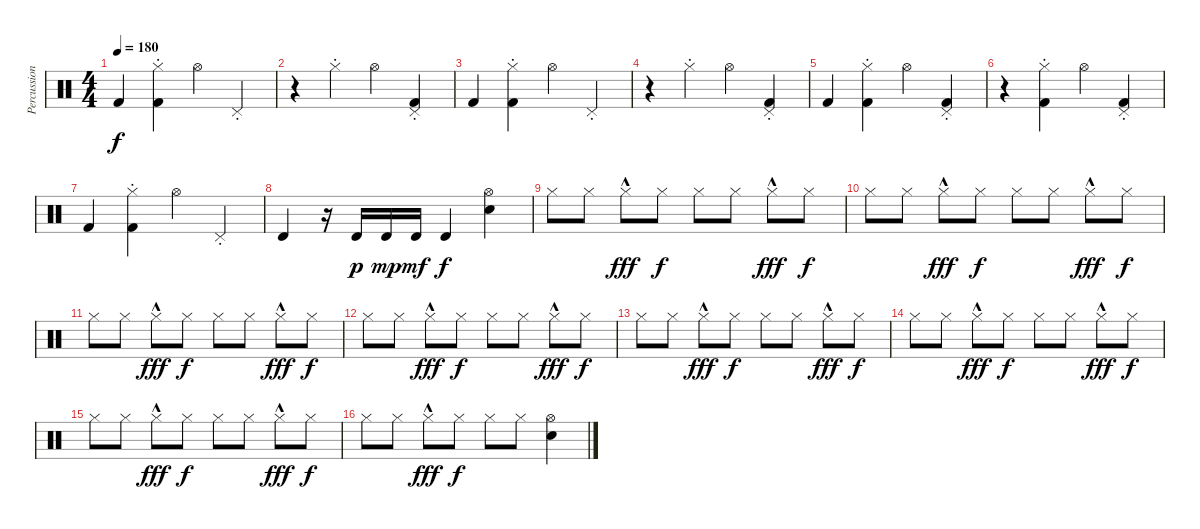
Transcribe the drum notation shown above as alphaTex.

\track ("Percussion" "Percussion") {instrument percussion}
\staff {score}
\articulation defaults
\ts (4 4)
\tempo 180
\clef neutral
\ks c "Kick (hit) 2".4{dy f}
("Hi-Hat (closed)"{st} "Kick (hit) 2").4 "Hi-Hat (open)".4 "Pedal Hi-Hat (hit)"{st}.4 |
r.4 "Hi-Hat (closed)"{st}.4 "Hi-Hat (open)".4 ("Pedal Hi-Hat (hit)"{st} "Kick (hit) 2").4 |
"Kick (hit) 2".4 ("Hi-Hat (closed)"{st} "Kick (hit) 2").4 "Hi-Hat (open)".4 "Pedal Hi-Hat (hit)"{st}.4 |
r.4 "Hi-Hat (closed)"{st}.4 "Hi-Hat (open)".4 ("Pedal Hi-Hat (hit)"{st} "Kick (hit) 2").4 |
"Kick (hit) 2".4 ("Hi-Hat (closed)"{st} "Kick (hit) 2").4 "Hi-Hat (open)".4 ("Pedal Hi-Hat (hit)"{st} "Kick (hit) 2").4 |
r.4 ("Hi-Hat (closed)"{st} "Kick (hit) 2").4 "Hi-Hat (open)".4 ("Pedal Hi-Hat (hit)"{st} "Kick (hit) 2").4 |
"Kick (hit) 2".4 ("Hi-Hat (closed)"{st} "Kick (hit) 2").4 "Hi-Hat (open)".4 "Pedal Hi-Hat (hit)"{st}.4 |
"Timbale high (hit)".4 r.16 "Timbale high (hit)".16{dy p} "Timbale high (hit)".16{dy mp} "Timbale high (hit)".16{dy mf} "Timbale high (hit)".4{dy f} ("Electric Snare (hit)" "Hi-Hat (open)").4 |
"Hi-Hat (closed)".8 "Hi-Hat (closed)".8 "Hi-Hat (closed)"{hac}.8{dy fff} "Hi-Hat (closed)".8{dy f} "Hi-Hat (closed)".8 "Hi-Hat (closed)".8 "Hi-Hat (closed)"{hac}.8{dy fff} "Hi-Hat (closed)".8{dy f} |
"Hi-Hat (closed)".8 "Hi-Hat (closed)".8 "Hi-Hat (closed)"{hac}.8{dy fff} "Hi-Hat (closed)".8{dy f} "Hi-Hat (closed)".8 "Hi-Hat (closed)".8 "Hi-Hat (closed)"{hac}.8{dy fff} "Hi-Hat (closed)".8{dy f} |
"Hi-Hat (closed)".8 "Hi-Hat (closed)".8 "Hi-Hat (closed)"{hac}.8{dy fff} "Hi-Hat (closed)".8{dy f} "Hi-Hat (closed)".8 "Hi-Hat (closed)".8 "Hi-Hat (closed)"{hac}.8{dy fff} "Hi-Hat (closed)".8{dy f} |
"Hi-Hat (closed)".8 "Hi-Hat (closed)".8 "Hi-Hat (closed)"{hac}.8{dy fff} "Hi-Hat (closed)".8{dy f} "Hi-Hat (closed)".8 "Hi-Hat (closed)".8 "Hi-Hat (closed)"{hac}.8{dy fff} "Hi-Hat (closed)".8{dy f} |
"Hi-Hat (closed)".8 "Hi-Hat (closed)".8 "Hi-Hat (closed)"{hac}.8{dy fff} "Hi-Hat (closed)".8{dy f} "Hi-Hat (closed)".8 "Hi-Hat (closed)".8 "Hi-Hat (closed)"{hac}.8{dy fff} "Hi-Hat (closed)".8{dy f} |
"Hi-Hat (closed)".8 "Hi-Hat (closed)".8 "Hi-Hat (closed)"{hac}.8{dy fff} "Hi-Hat (closed)".8{dy f} "Hi-Hat (closed)".8 "Hi-Hat (closed)".8 "Hi-Hat (closed)"{hac}.8{dy fff} "Hi-Hat (closed)".8{dy f} |
"Hi-Hat (closed)".8 "Hi-Hat (closed)".8 "Hi-Hat (closed)"{hac}.8{dy fff} "Hi-Hat (closed)".8{dy f} "Hi-Hat (closed)".8 "Hi-Hat (closed)".8 "Hi-Hat (closed)"{hac}.8{dy fff} "Hi-Hat (closed)".8{dy f} |
"Hi-Hat (closed)".8 "Hi-Hat (closed)".8 "Hi-Hat (closed)"{hac}.8{dy fff} "Hi-Hat (closed)".8{dy f} "Hi-Hat (closed)".8 "Hi-Hat (closed)".8 ("Hi-Hat (open)" "Electric Snare (hit)").4
